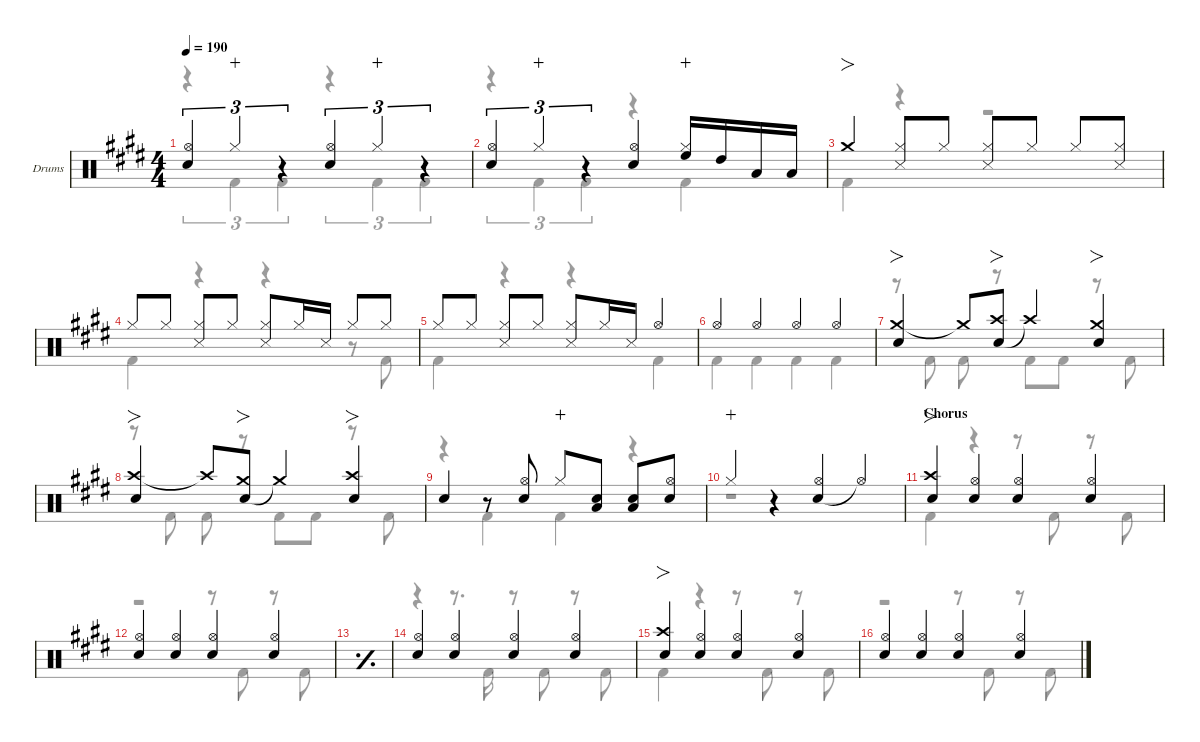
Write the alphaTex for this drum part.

\defaultSystemsLayout 4
\hideDynamics
\bracketExtendMode nobrackets
\firstSystemTrackNameOrientation horizontal
\track ("Drums" "Drums") {defaultSystemsLayout 4 instrument percussion}
\staff {score}
\articulation defaults
\voice
\ts (4 4)
\tempo 190
\clef neutral
\scale
0.244461
\ks e
("Snare (hit) 2"{acc forcenatural} "Hi-Hat (open)"{acc forcenatural}).4{tu (3 2) dy f beam Up} "Hi-Hat (closed)"{acc forcenatural}.4{tu (3 2) dy mp wahc beam Up} r.4{tu (3 2) beam Up} ("Snare (hit) 2"{acc forcenatural} "Hi-Hat (open)"{acc forcenatural}).4{tu (3 2) dy f beam Up} "Hi-Hat (closed)"{acc forcenatural}.4{tu (3 2) dy mp wahc beam Up} r.4{tu (3 2) beam Up} |
\scale
0.244459 ("Snare (hit) 2"{acc forcenatural} "Hi-Hat (open)"{acc forcenatural}).4{tu (3 2) dy f beam Up} "Hi-Hat (closed)"{acc forcenatural}.4{tu (3 2) dy mp wahc beam Up} r.4{tu (3 2) beam Up} ("Snare (hit) 2"{acc forcenatural} "Hi-Hat (open)"{acc forcenatural}).4{dy f beam Up} ("Hi-Hat (closed)"{acc forcenatural} "High Floor Tom (hit)"{acc forcenatural}).16{wahc beam Up} "High Tom (hit)"{acc forcenatural}.16{beam Up} "Low Tom (hit)"{acc forcenatural}.16{beam Up} "Low Tom (hit)"{acc forcenatural}.16{beam Up} |
\scale
0.266618 "Crash medium (hit)"{acc forcenatural}.4{fo beam Up} ("Snare (side stick) 3"{acc forcenatural} "Hi-Hat (closed)"{acc forcenatural}).8{beam Up} "Hi-Hat (closed)"{acc forcenatural}.8{dy mf beam Up} ("Hi-Hat (closed)"{acc forcenatural} "Snare (side stick) 3"{acc forcenatural}).8{dy f beam Up} "Hi-Hat (closed)"{acc forcenatural}.8{dy mf beam Up} "Hi-Hat (closed)"{acc forcenatural}.8{dy f beam Up} ("Hi-Hat (closed)"{acc forcenatural} "Snare (side stick) 3"{acc forcenatural}).8{dy mf beam Up} |
\scale
0.244461 "Hi-Hat (closed)"{acc forcenatural}.8{dy f beam Up} "Hi-Hat (closed)"{acc forcenatural}.8{dy mf beam Up} ("Snare (side stick) 3"{acc forcenatural} "Hi-Hat (closed)"{acc forcenatural}).8{dy f beam Up} "Hi-Hat (closed)"{acc forcenatural}.8{dy mf beam Up} ("Hi-Hat (closed)"{acc forcenatural} "Snare (side stick) 3"{acc forcenatural}).8{dy f beam Up} "Hi-Hat (closed)"{acc forcenatural}.16{dy mf beam Up} "Snare (side stick) 3"{acc forcenatural}.16{dy f beam Up beam split} "Hi-Hat (closed)"{acc forcenatural}.8{beam Up} "Hi-Hat (closed)"{acc forcenatural}.8{dy mf beam Up} |
\scale
0.24446 "Hi-Hat (closed)"{acc forcenatural}.8{dy f beam Up} "Hi-Hat (closed)"{acc forcenatural}.8{dy mf beam Up} ("Snare (side stick) 3"{acc forcenatural} "Hi-Hat (closed)"{acc forcenatural}).8{dy f beam Up} "Hi-Hat (closed)"{acc forcenatural}.8{dy mf beam Up} ("Hi-Hat (closed)"{acc forcenatural} "Snare (side stick) 3"{acc forcenatural}).8{dy f beam Up} "Hi-Hat (closed)"{acc forcenatural}.16{dy mf beam Up} "Snare (side stick) 3"{acc forcenatural}.16{dy f beam Up beam split} "Hi-Hat (open)"{acc forcenatural}.4{beam Up} |
\scale
0.244461 "Hi-Hat (open)"{acc forcenatural}.4{beam Up} "Hi-Hat (open)"{acc forcenatural}.4{beam Up} "Hi-Hat (open)"{acc forcenatural}.4{beam Up} "Hi-Hat (open)"{acc forcenatural}.4{beam Up} |
\scale
0.266618 ("Crash medium (hit)"{acc forcenatural} "Snare (hit) 2"{acc forcenatural}).4{fo beam Up} "Crash medium (hit)"{t acc forcenatural}.8{beam Up} ("Snare (hit) 2"{acc forcenatural} "Crash high (hit)"{acc forcenatural}).8{fo beam Up} "Crash high (hit)"{t acc forcenatural}.4{beam Up} ("Snare (hit) 2"{acc forcenatural} "Crash medium (hit)"{acc forcenatural}).4{fo beam Up} |
\scale
0.244461 ("Crash high (hit)"{acc forcenatural} "Snare (hit) 2"{acc forcenatural}).4{fo beam Up} "Crash high (hit)"{t acc forcenatural}.8{beam Up} ("Snare (hit) 2"{acc forcenatural} "Crash medium (hit)"{acc forcenatural}).8{fo beam Up} "Crash medium (hit)"{t acc forcenatural}.4{beam Up} ("Snare (hit) 2"{acc forcenatural} "Crash high (hit)"{acc forcenatural}).4{fo beam Up} |
\scale
0.24446 "Snare (hit) 2"{acc forcenatural}.4{beam Up} r.8{beam Up} ("Snare (hit) 2"{acc forcenatural} "Hi-Hat (open)"{acc forcenatural}).8{beam Up} "Hi-Hat (closed)"{acc forcenatural}.8{dy mp wahc beam Up} ("Snare (hit) 2"{acc forcenatural} "Low Tom (hit)"{acc forcenatural}).8{dy f beam Up} ("Snare (hit) 2"{acc forcenatural} "Low Tom (hit)"{acc forcenatural}).8{beam Up} ("Hi-Hat (open)"{acc forcenatural} "Snare (hit) 2"{acc forcenatural}).8{beam Up} |
\scale
0.244461 "Hi-Hat (closed)"{acc forcenatural}.4{dy mp wahc beam Up} r.4{beam Up} ("Snare (hit) 2"{acc forcenatural} "Hi-Hat (open)"{acc forcenatural}).4{dy f beam Up} "Hi-Hat (open)"{t acc forcenatural}.4{beam Up} |
\section ("" "Chorus")
\scale
0.266618 ("Crash high (hit)"{acc forcenatural} "Snare (hit) 2"{acc forcenatural}).4{fo beam Up} ("Snare (hit) 2"{acc forcenatural} "Hi-Hat (open)"{acc forcenatural}).4{beam Up} ("Snare (hit) 2"{acc forcenatural} "Hi-Hat (open)"{acc forcenatural}).4{beam Up} ("Snare (hit) 2"{acc forcenatural} "Hi-Hat (open)"{acc forcenatural}).4{beam Up} |
\scale
0.244461 ("Snare (hit) 2"{acc forcenatural} "Hi-Hat (open)"{acc forcenatural}).4{beam Up} ("Snare (hit) 2"{acc forcenatural} "Hi-Hat (open)"{acc forcenatural}).4{beam Up} ("Snare (hit) 2"{acc forcenatural} "Hi-Hat (open)"{acc forcenatural}).4{beam Up} ("Snare (hit) 2"{acc forcenatural} "Hi-Hat (open)"{acc forcenatural}).4{beam Up} |
\simile simple
\scale
0.24446 |
\simile none
\scale
0.244461 ("Snare (hit) 2"{acc forcenatural} "Hi-Hat (open)"{acc forcenatural}).4{beam Up} ("Snare (hit) 2"{acc forcenatural} "Hi-Hat (open)"{acc forcenatural}).4{beam Up} ("Snare (hit) 2"{acc forcenatural} "Hi-Hat (open)"{acc forcenatural}).4{beam Up} ("Snare (hit) 2"{acc forcenatural} "Hi-Hat (open)"{acc forcenatural}).4{beam Up} |
\scale
0.266618 ("Crash high (hit)"{acc forcenatural} "Snare (hit) 2"{acc forcenatural}).4{fo beam Up} ("Snare (hit) 2"{acc forcenatural} "Hi-Hat (open)"{acc forcenatural}).4{beam Up} ("Snare (hit) 2"{acc forcenatural} "Hi-Hat (open)"{acc forcenatural}).4{beam Up} ("Snare (hit) 2"{acc forcenatural} "Hi-Hat (open)"{acc forcenatural}).4{beam Up} |
\scale
0.244461 ("Snare (hit) 2"{acc forcenatural} "Hi-Hat (open)"{acc forcenatural}).4{beam Up} ("Snare (hit) 2"{acc forcenatural} "Hi-Hat (open)"{acc forcenatural}).4{beam Up} ("Snare (hit) 2"{acc forcenatural} "Hi-Hat (open)"{acc forcenatural}).4{beam Up} ("Snare (hit) 2"{acc forcenatural} "Hi-Hat (open)"{acc forcenatural}).4{beam Up}
\voice
\clef neutral
\ottava regular
\simile none
\scale
0.244461
\ks e
r.4{tu (3 2) dy f beam Down} "Kick (hit) 2"{acc forcenatural}.4{tu (3 2) beam Down} "Kick (hit) 2"{acc forcenatural}.4{tu (3 2) beam Down} r.4{tu (3 2) beam Down} "Kick (hit) 2"{acc forcenatural}.4{tu (3 2) beam Down} "Kick (hit) 2"{acc forcenatural}.4{tu (3 2) beam Down} |
\scale
0.244459 r.4{tu (3 2) beam Down} "Kick (hit) 2"{acc forcenatural}.4{tu (3 2) beam Down} "Kick (hit) 2"{acc forcenatural}.4{tu (3 2) beam Down} r.4{beam Down} "Kick (hit) 2"{acc forcenatural}.4{beam Down} |
\scale
0.266618 "Kick (hit) 2"{acc forcenatural}.4{beam Down} r.4{beam Down} r.2{beam Down} |
\scale
0.244461 "Kick (hit) 2"{acc forcenatural}.4{beam Down} r.4{beam Down} r.4{beam Down} r.8{beam Down} "Kick (hit) 2"{acc forcenatural}.8{beam Down} |
\scale
0.24446 "Kick (hit) 2"{acc forcenatural}.4{beam Down} r.4{beam Down} r.4{beam Down} "Kick (hit) 2"{acc forcenatural}.4{beam Down} |
\scale
0.244461 "Kick (hit) 2"{acc forcenatural}.4{beam Down} "Kick (hit) 2"{acc forcenatural}.4{beam Down} "Kick (hit) 2"{acc forcenatural}.4{beam Down} "Kick (hit) 2"{acc forcenatural}.4{beam Down} |
\scale
0.266618 r.8{beam Down} "Kick (hit) 2"{acc forcenatural}.8{beam Down} "Kick (hit) 2"{acc forcenatural}.8{beam Down} r.8{beam Down} "Kick (hit) 2"{acc forcenatural}.8{beam Down} "Kick (hit) 2"{acc forcenatural}.8{beam Down} r.8{beam Down} "Kick (hit) 2"{acc forcenatural}.8{beam Down} |
\scale
0.244461 r.8{beam Down} "Kick (hit) 2"{acc forcenatural}.8{beam Down} "Kick (hit) 2"{acc forcenatural}.8{beam Down} r.8{beam Down} "Kick (hit) 2"{acc forcenatural}.8{beam Down} "Kick (hit) 2"{acc forcenatural}.8{beam Down} r.8{beam Down} "Kick (hit) 2"{acc forcenatural}.8{beam Down} |
\scale
0.24446 r.4{beam Down} "Kick (hit) 2"{acc forcenatural}.4{beam Down} "Kick (hit) 2"{acc forcenatural}.4{beam Down} r.4{beam Down} |
\scale
0.244461 r.1{beam Down} |
\scale
0.266618 "Kick (hit) 2"{acc forcenatural}.4{beam Down} r.4{beam Down} r.8{beam Down} "Kick (hit) 2"{acc forcenatural}.8{beam Down} r.8{beam Down} "Kick (hit) 2"{acc forcenatural}.8{beam Down} |
\scale
0.244461 r.2{beam Down} r.8{beam Down} "Kick (hit) 2"{acc forcenatural}.8{beam Down} r.8{beam Down} "Kick (hit) 2"{acc forcenatural}.8{beam Down} |
\simile simple
\scale
0.24446 |
\simile none
\scale
0.244461 r.4{beam Down} r.8{d beam Down} "Kick (hit) 2"{acc forcenatural}.16{beam Down} r.8{beam Down} "Kick (hit) 2"{acc forcenatural}.8{beam Down} r.8{beam Down} "Kick (hit) 2"{acc forcenatural}.8{beam Down} |
\scale
0.266618 "Kick (hit) 2"{acc forcenatural}.4{beam Down} r.4{beam Down} r.8{beam Down} "Kick (hit) 2"{acc forcenatural}.8{beam Down} r.8{beam Down} "Kick (hit) 2"{acc forcenatural}.8{beam Down} |
\scale
0.244461 r.2{beam Down} r.8{beam Down} "Kick (hit) 2"{acc forcenatural}.8{beam Down} r.8{beam Down} "Kick (hit) 2"{acc forcenatural}.8{beam Down}
